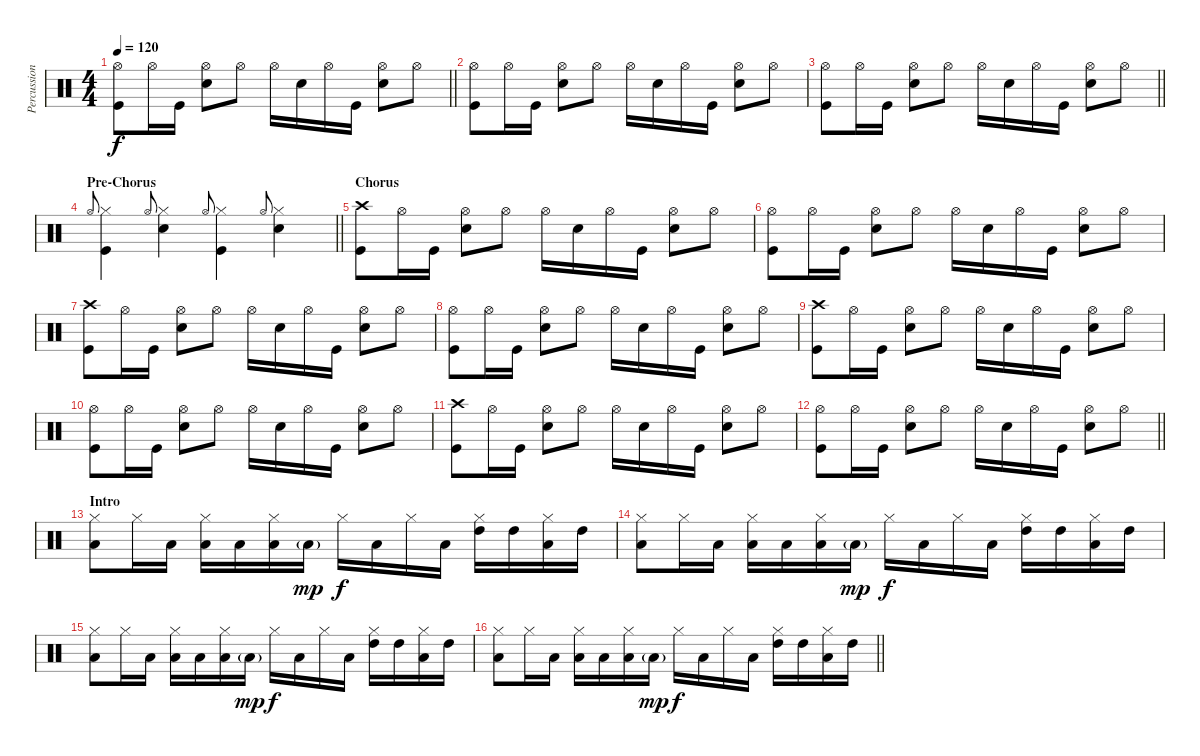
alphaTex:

\track ("Percussion" "Percussion") {instrument percussion}
\staff {score}
\articulation defaults
\ts (4 4)
\tempo 120
\clef neutral
\barLineRight lightlight
\ks c
("Hi-Hat (open)" "Kick (hit)").8{dy f} "Hi-Hat (open)".16 "Kick (hit)".16 ("Hi-Hat (open)" "Snare (hit) 2").8 "Hi-Hat (open)".8 "Hi-Hat (open)".16 "Snare (hit) 2".16 "Hi-Hat (open)".16 "Kick (hit)".16 ("Hi-Hat (open)" "Snare (hit) 2").8 "Hi-Hat (open)".8 |
("Hi-Hat (open)" "Kick (hit)").8 "Hi-Hat (open)".16 "Kick (hit)".16 ("Hi-Hat (open)" "Snare (hit) 2").8 "Hi-Hat (open)".8 "Hi-Hat (open)".16 "Snare (hit) 2".16 "Hi-Hat (open)".16 "Kick (hit)".16 ("Hi-Hat (open)" "Snare (hit) 2").8 "Hi-Hat (open)".8 |
\barLineRight lightlight
("Hi-Hat (open)" "Kick (hit)").8 "Hi-Hat (open)".16 "Kick (hit)".16 ("Hi-Hat (open)" "Snare (hit) 2").8 "Hi-Hat (open)".8 "Hi-Hat (open)".16 "Snare (hit) 2".16 "Hi-Hat (open)".16 "Kick (hit)".16 ("Hi-Hat (open)" "Snare (hit) 2").8 "Hi-Hat (open)".8 |
\section ("" "Pre-Chorus")
\barLineRight lightlight "Hi-Hat (open)".8{gr onbeat}
("Hi-Hat (closed)" "Kick (hit)").4 "Hi-Hat (open)".8{gr onbeat} ("Hi-Hat (closed)" "Snare (hit) 2").4 "Hi-Hat (open)".8{gr onbeat} ("Hi-Hat (closed)" "Kick (hit)").4 "Hi-Hat (open)".8{gr onbeat} ("Hi-Hat (closed)" "Snare (hit) 2").4 |
\section ("" "Chorus")
("Crash high (hit)" "Kick (hit)").8 "Hi-Hat (open)".16 "Kick (hit)".16 ("Hi-Hat (open)" "Snare (hit) 2").8 "Hi-Hat (open)".8 "Hi-Hat (open)".16 "Snare (hit) 2".16 "Hi-Hat (open)".16 "Kick (hit)".16 ("Hi-Hat (open)" "Snare (hit) 2").8 "Hi-Hat (open)".8 |
("Hi-Hat (open)" "Kick (hit)").8 "Hi-Hat (open)".16 "Kick (hit)".16 ("Hi-Hat (open)" "Snare (hit) 2").8 "Hi-Hat (open)".8 "Hi-Hat (open)".16 "Snare (hit) 2".16 "Hi-Hat (open)".16 "Kick (hit)".16 ("Hi-Hat (open)" "Snare (hit) 2").8 "Hi-Hat (open)".8 |
("Crash high (hit)" "Kick (hit)").8 "Hi-Hat (open)".16 "Kick (hit)".16 ("Hi-Hat (open)" "Snare (hit) 2").8 "Hi-Hat (open)".8 "Hi-Hat (open)".16 "Snare (hit) 2".16 "Hi-Hat (open)".16 "Kick (hit)".16 ("Hi-Hat (open)" "Snare (hit) 2").8 "Hi-Hat (open)".8 |
("Hi-Hat (open)" "Kick (hit)").8 "Hi-Hat (open)".16 "Kick (hit)".16 ("Hi-Hat (open)" "Snare (hit) 2").8 "Hi-Hat (open)".8 "Hi-Hat (open)".16 "Snare (hit) 2".16 "Hi-Hat (open)".16 "Kick (hit)".16 ("Hi-Hat (open)" "Snare (hit) 2").8 "Hi-Hat (open)".8 |
("Crash high (hit)" "Kick (hit)").8 "Hi-Hat (open)".16 "Kick (hit)".16 ("Hi-Hat (open)" "Snare (hit) 2").8 "Hi-Hat (open)".8 "Hi-Hat (open)".16 "Snare (hit) 2".16 "Hi-Hat (open)".16 "Kick (hit)".16 ("Hi-Hat (open)" "Snare (hit) 2").8 "Hi-Hat (open)".8 |
("Hi-Hat (open)" "Kick (hit)").8 "Hi-Hat (open)".16 "Kick (hit)".16 ("Hi-Hat (open)" "Snare (hit) 2").8 "Hi-Hat (open)".8 "Hi-Hat (open)".16 "Snare (hit) 2".16 "Hi-Hat (open)".16 "Kick (hit)".16 ("Hi-Hat (open)" "Snare (hit) 2").8 "Hi-Hat (open)".8 |
("Crash high (hit)" "Kick (hit)").8 "Hi-Hat (open)".16 "Kick (hit)".16 ("Hi-Hat (open)" "Snare (hit) 2").8 "Hi-Hat (open)".8 "Hi-Hat (open)".16 "Snare (hit) 2".16 "Hi-Hat (open)".16 "Kick (hit)".16 ("Hi-Hat (open)" "Snare (hit) 2").8 "Hi-Hat (open)".8 |
\barLineRight lightlight
("Hi-Hat (open)" "Kick (hit)").8 "Hi-Hat (open)".16 "Kick (hit)".16 ("Hi-Hat (open)" "Snare (hit) 2").8 "Hi-Hat (open)".8 "Hi-Hat (open)".16 "Snare (hit) 2".16 "Hi-Hat (open)".16 "Kick (hit)".16 ("Hi-Hat (open)" "Snare (hit) 2").8 "Hi-Hat (open)".8 |
\section ("" "Intro")
("Hi-Hat (closed)" "Low Floor Tom (hit)").8 "Hi-Hat (closed)".16 "Low Floor Tom (hit)".16 ("Hi-Hat (closed)" "Low Tom (hit)").16 "Low Tom (hit)".16 ("Hi-Hat (closed)" "Low Floor Tom (hit)").16 "Low Floor Tom (hit)"{g}.16{dy mp} "Hi-Hat (closed)".16{dy f} "Low Floor Tom (hit)".16 "Hi-Hat (closed)".16 "Low Floor Tom (hit)".16 ("Hi-Hat (closed)" "High Tom (hit)").16 "High Tom (hit)".16 ("Hi-Hat (closed)" "Low Tom (hit)").16 "High Tom (hit)".16 |
("Hi-Hat (closed)" "Low Floor Tom (hit)").8 "Hi-Hat (closed)".16 "Low Floor Tom (hit)".16 ("Hi-Hat (closed)" "Low Tom (hit)").16 "Low Tom (hit)".16 ("Hi-Hat (closed)" "Low Floor Tom (hit)").16 "Low Floor Tom (hit)"{g}.16{dy mp} "Hi-Hat (closed)".16{dy f} "Low Floor Tom (hit)".16 "Hi-Hat (closed)".16 "Low Floor Tom (hit)".16 ("Hi-Hat (closed)" "High Tom (hit)").16 "High Tom (hit)".16 ("Hi-Hat (closed)" "Low Tom (hit)").16 "High Tom (hit)".16 |
("Hi-Hat (closed)" "Low Floor Tom (hit)").8 "Hi-Hat (closed)".16 "Low Floor Tom (hit)".16 ("Hi-Hat (closed)" "Low Tom (hit)").16 "Low Tom (hit)".16 ("Hi-Hat (closed)" "Low Floor Tom (hit)").16 "Low Floor Tom (hit)"{g}.16{dy mp} "Hi-Hat (closed)".16{dy f} "Low Floor Tom (hit)".16 "Hi-Hat (closed)".16 "Low Floor Tom (hit)".16 ("Hi-Hat (closed)" "High Tom (hit)").16 "High Tom (hit)".16 ("Hi-Hat (closed)" "Low Tom (hit)").16 "High Tom (hit)".16 |
\barLineRight lightlight
("Hi-Hat (closed)" "Low Floor Tom (hit)").8 "Hi-Hat (closed)".16 "Low Floor Tom (hit)".16 ("Hi-Hat (closed)" "Low Tom (hit)").16 "Low Tom (hit)".16 ("Hi-Hat (closed)" "Low Floor Tom (hit)").16 "Low Floor Tom (hit)"{g}.16{dy mp} "Hi-Hat (closed)".16{dy f} "Low Floor Tom (hit)".16 "Hi-Hat (closed)".16 "Low Floor Tom (hit)".16 ("Hi-Hat (closed)" "High Tom (hit)").16 "High Tom (hit)".16 ("Hi-Hat (closed)" "Low Tom (hit)").16 "High Tom (hit)".16
